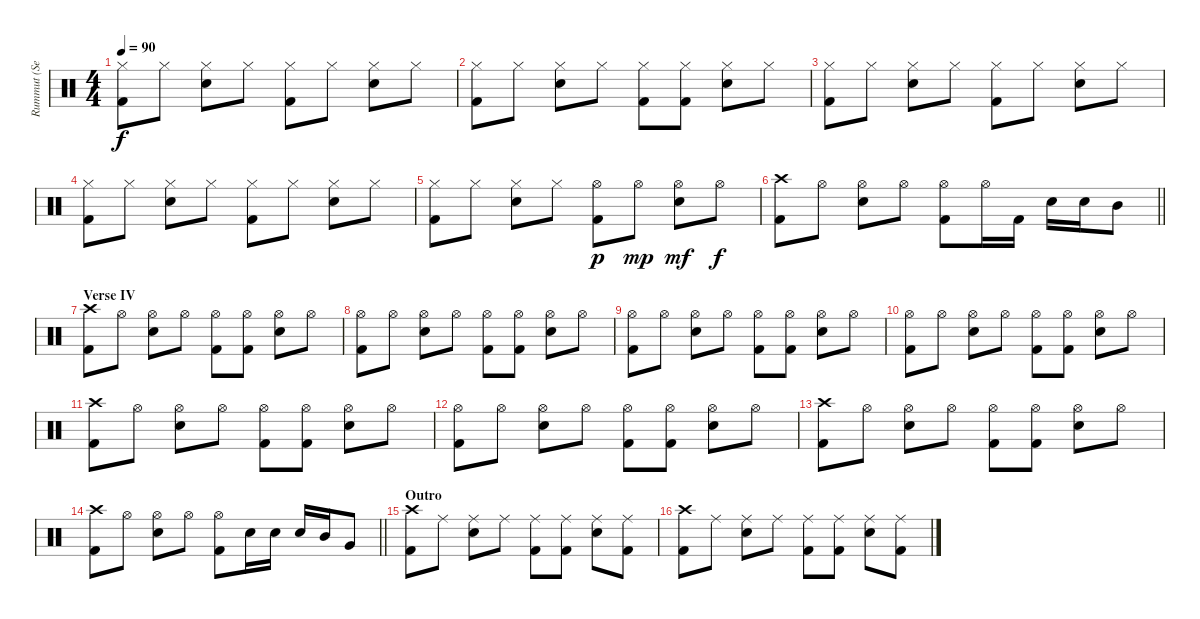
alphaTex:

\track ("Rummut (Seppo Pohjolainen)" "Rummut (Se") {instrument percussion}
\staff {score}
\articulation defaults
\ts (4 4)
\tempo 90
\clef neutral
\ks c
("Hi-Hat (closed)" "Kick (hit) 2").8{dy f} "Hi-Hat (closed)".8 ("Hi-Hat (closed)" "Snare (hit) 2").8 "Hi-Hat (closed)".8 ("Hi-Hat (closed)" "Kick (hit) 2").8 "Hi-Hat (closed)".8 ("Hi-Hat (closed)" "Snare (hit) 2").8 "Hi-Hat (closed)".8 |
("Hi-Hat (closed)" "Kick (hit) 2").8 "Hi-Hat (closed)".8 ("Hi-Hat (closed)" "Snare (hit) 2").8 "Hi-Hat (closed)".8 ("Hi-Hat (closed)" "Kick (hit) 2").8 ("Hi-Hat (closed)" "Kick (hit) 2").8 ("Hi-Hat (closed)" "Snare (hit) 2").8 "Hi-Hat (closed)".8 |
("Hi-Hat (closed)" "Kick (hit) 2").8 "Hi-Hat (closed)".8 ("Hi-Hat (closed)" "Snare (hit) 2").8 "Hi-Hat (closed)".8 ("Hi-Hat (closed)" "Kick (hit) 2").8 "Hi-Hat (closed)".8 ("Hi-Hat (closed)" "Snare (hit) 2").8 "Hi-Hat (closed)".8 |
("Hi-Hat (closed)" "Kick (hit) 2").8 "Hi-Hat (closed)".8 ("Hi-Hat (closed)" "Snare (hit) 2").8 "Hi-Hat (closed)".8 ("Hi-Hat (closed)" "Kick (hit) 2").8 "Hi-Hat (closed)".8 ("Hi-Hat (closed)" "Snare (hit) 2").8 "Hi-Hat (closed)".8 |
("Hi-Hat (closed)" "Kick (hit) 2").8 "Hi-Hat (closed)".8 ("Hi-Hat (closed)" "Snare (hit) 2").8 "Hi-Hat (closed)".8 ("Hi-Hat (open)" "Kick (hit) 2").8{dy p} "Hi-Hat (open)".8{dy mp} ("Hi-Hat (open)" "Snare (hit) 2").8{dy mf} "Hi-Hat (open)".8{dy f} |
\barLineRight lightlight
("Crash high (hit)" "Kick (hit) 2").8 "Hi-Hat (open)".8 ("Hi-Hat (open)" "Snare (hit) 2").8 "Hi-Hat (open)".8 ("Hi-Hat (open)" "Kick (hit) 2").8 "Hi-Hat (open)".16 "Kick (hit) 2".16 "Snare (hit) 2".16 "Snare (hit) 2".16 "Mid Tom (hit)".8 |
\section ("" "Verse IV")
("Crash high (hit)" "Kick (hit) 2").8 "Hi-Hat (open)".8 ("Hi-Hat (open)" "Snare (hit) 2").8 "Hi-Hat (open)".8 ("Hi-Hat (open)" "Kick (hit) 2").8 ("Hi-Hat (open)" "Kick (hit) 2").8 ("Hi-Hat (open)" "Snare (hit) 2").8 "Hi-Hat (open)".8 |
("Hi-Hat (open)" "Kick (hit) 2").8 "Hi-Hat (open)".8 ("Hi-Hat (open)" "Snare (hit) 2").8 "Hi-Hat (open)".8 ("Hi-Hat (open)" "Kick (hit) 2").8 ("Hi-Hat (open)" "Kick (hit) 2").8 ("Hi-Hat (open)" "Snare (hit) 2").8 "Hi-Hat (open)".8 |
("Hi-Hat (open)" "Kick (hit) 2").8 "Hi-Hat (open)".8 ("Hi-Hat (open)" "Snare (hit) 2").8 "Hi-Hat (open)".8 ("Hi-Hat (open)" "Kick (hit) 2").8 ("Hi-Hat (open)" "Kick (hit) 2").8 ("Hi-Hat (open)" "Snare (hit) 2").8 "Hi-Hat (open)".8 |
("Hi-Hat (open)" "Kick (hit) 2").8 "Hi-Hat (open)".8 ("Hi-Hat (open)" "Snare (hit) 2").8 "Hi-Hat (open)".8 ("Hi-Hat (open)" "Kick (hit) 2").8 ("Hi-Hat (open)" "Kick (hit) 2").8 ("Hi-Hat (open)" "Snare (hit) 2").8 "Hi-Hat (open)".8 |
("Crash high (hit)" "Kick (hit) 2").8 "Hi-Hat (open)".8 ("Hi-Hat (open)" "Snare (hit) 2").8 "Hi-Hat (open)".8 ("Hi-Hat (open)" "Kick (hit) 2").8 ("Hi-Hat (open)" "Kick (hit) 2").8 ("Hi-Hat (open)" "Snare (hit) 2").8 "Hi-Hat (open)".8 |
("Hi-Hat (open)" "Kick (hit) 2").8 "Hi-Hat (open)".8 ("Hi-Hat (open)" "Snare (hit) 2").8 "Hi-Hat (open)".8 ("Hi-Hat (open)" "Kick (hit) 2").8 ("Hi-Hat (open)" "Kick (hit) 2").8 ("Hi-Hat (open)" "Snare (hit) 2").8 "Hi-Hat (open)".8 |
("Crash high (hit)" "Kick (hit) 2").8 "Hi-Hat (open)".8 ("Hi-Hat (open)" "Snare (hit) 2").8 "Hi-Hat (open)".8 ("Hi-Hat (open)" "Kick (hit) 2").8 ("Hi-Hat (open)" "Kick (hit) 2").8 ("Hi-Hat (open)" "Snare (hit) 2").8 "Hi-Hat (open)".8 |
\barLineRight lightlight
("Crash high (hit)" "Kick (hit) 2").8 "Hi-Hat (open)".8 ("Hi-Hat (open)" "Snare (hit) 2").8 "Hi-Hat (open)".8 ("Hi-Hat (open)" "Kick (hit) 2").8 "Snare (hit) 2".16 "Snare (hit) 2".16 "Snare (hit) 2".16 "Mid Tom (hit)".16 "Very Low Tom (hit)".8 |
\section ("" "Outro")
("Crash high (hit)" "Kick (hit) 2").8 "Ride (middle)".8 ("Ride (middle)" "Snare (hit) 2").8 "Ride (middle)".8 ("Ride (middle)" "Kick (hit) 2").8 ("Ride (middle)" "Kick (hit) 2").8 ("Ride (middle)" "Snare (hit) 2").8 ("Ride (middle)" "Kick (hit) 2").8 |
("Crash high (hit)" "Kick (hit) 2").8 "Ride (middle)".8 ("Ride (middle)" "Snare (hit) 2").8 "Ride (middle)".8 ("Ride (middle)" "Kick (hit) 2").8 ("Ride (middle)" "Kick (hit) 2").8 ("Ride (middle)" "Snare (hit) 2").8 ("Ride (middle)" "Kick (hit) 2").8
